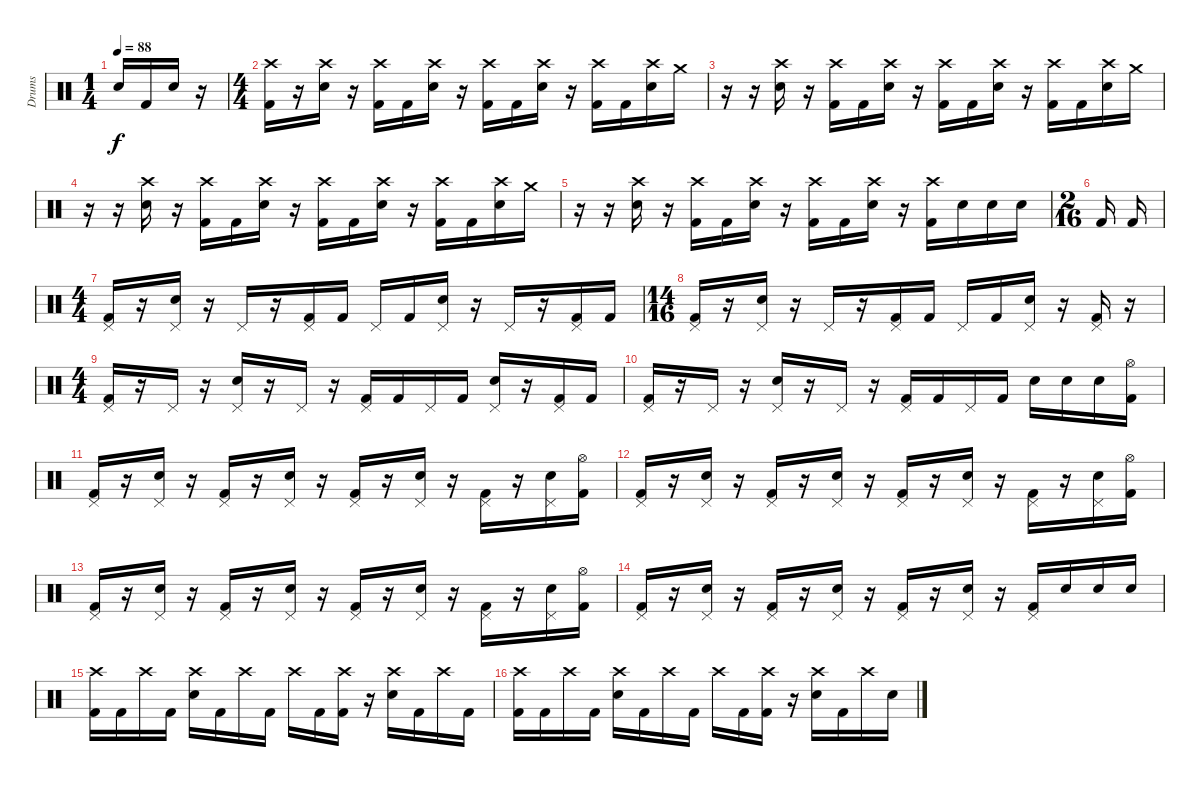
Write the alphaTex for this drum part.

\track ("Drums" "Drums") {instrument percussion}
\staff {score}
\articulation defaults
\ts (1 4)
\tempo 88
\clef neutral
\ks c "Electric Snare (hit)".16{dy f} "Kick (hit) 2".16 "Electric Snare (hit)".16
r.16 |
\ts (4 4)
("Crash high (hit)" "Kick (hit) 2").16 r.16 ("Crash high (hit)" "Electric Snare (hit)").16 r.16 ("Crash high (hit)" "Kick (hit) 2").16 "Kick (hit) 2".16 ("Crash high (hit)" "Electric Snare (hit)").16 r.16 ("Crash high (hit)" "Kick (hit) 2").16 "Kick (hit) 2".16 ("Crash high (hit)" "Electric Snare (hit)").16 r.16 ("Crash high (hit)" "Kick (hit) 2").16 "Kick (hit) 2".16 ("Crash high (hit)" "Electric Snare (hit)").16 "Crash medium (hit)".16 |
r.16 r.16 ("Crash high (hit)" "Electric Snare (hit)").16 r.16 ("Crash high (hit)" "Kick (hit) 2").16 "Kick (hit) 2".16 ("Crash high (hit)" "Electric Snare (hit)").16 r.16 ("Crash high (hit)" "Kick (hit) 2").16 "Kick (hit) 2".16 ("Crash high (hit)" "Electric Snare (hit)").16 r.16 ("Crash high (hit)" "Kick (hit) 2").16 "Kick (hit) 2".16 ("Crash high (hit)" "Electric Snare (hit)").16 "Crash medium (hit)".16 |
r.16 r.16 ("Crash high (hit)" "Electric Snare (hit)").16 r.16 ("Crash high (hit)" "Kick (hit) 2").16 "Kick (hit) 2".16 ("Crash high (hit)" "Electric Snare (hit)").16 r.16 ("Crash high (hit)" "Kick (hit) 2").16 "Kick (hit) 2".16 ("Crash high (hit)" "Electric Snare (hit)").16 r.16 ("Crash high (hit)" "Kick (hit) 2").16 "Kick (hit) 2".16 ("Crash high (hit)" "Electric Snare (hit)").16 "Crash medium (hit)".16 |
r.16 r.16 ("Crash high (hit)" "Electric Snare (hit)").16 r.16 ("Crash high (hit)" "Kick (hit) 2").16 "Kick (hit) 2".16 ("Crash high (hit)" "Electric Snare (hit)").16 r.16 ("Crash high (hit)" "Kick (hit) 2").16 "Kick (hit) 2".16 ("Crash high (hit)" "Electric Snare (hit)").16 r.16 ("Crash high (hit)" "Kick (hit) 2").16 "Electric Snare (hit)".16 "Electric Snare (hit)".16 "Electric Snare (hit)".16 |
\ts (2 16)
"Kick (hit) 2".16 "Kick (hit) 2".16 |
\ts (4 4)
("Pedal Hi-Hat (hit)" "Kick (hit) 2").16 r.16 ("Pedal Hi-Hat (hit)" "Electric Snare (hit)").16 r.16 "Pedal Hi-Hat (hit)".16 r.16 ("Pedal Hi-Hat (hit)" "Kick (hit) 2").16 "Kick (hit) 2".16 "Pedal Hi-Hat (hit)".16 "Kick (hit) 2".16 ("Pedal Hi-Hat (hit)" "Electric Snare (hit)").16 r.16 "Pedal Hi-Hat (hit)".16 r.16 ("Pedal Hi-Hat (hit)" "Kick (hit) 2").16 "Kick (hit) 2".16 |
\ts (14 16)
("Pedal Hi-Hat (hit)" "Kick (hit) 2").16 r.16 ("Pedal Hi-Hat (hit)" "Electric Snare (hit)").16 r.16 "Pedal Hi-Hat (hit)".16 r.16 ("Pedal Hi-Hat (hit)" "Kick (hit) 2").16 "Kick (hit) 2".16 "Pedal Hi-Hat (hit)".16 "Kick (hit) 2".16 ("Pedal Hi-Hat (hit)" "Electric Snare (hit)").16 r.16 ("Pedal Hi-Hat (hit)" "Kick (hit) 2").16 r.16 |
\ts (4 4)
("Pedal Hi-Hat (hit)" "Kick (hit) 2").16 r.16 "Pedal Hi-Hat (hit)".16 r.16 ("Pedal Hi-Hat (hit)" "Electric Snare (hit)").16 r.16 "Pedal Hi-Hat (hit)".16 r.16 ("Pedal Hi-Hat (hit)" "Kick (hit) 2").16 "Kick (hit) 2".16 "Pedal Hi-Hat (hit)".16 "Kick (hit) 2".16 ("Pedal Hi-Hat (hit)" "Electric Snare (hit)").16 r.16 ("Pedal Hi-Hat (hit)" "Kick (hit) 2").16 "Kick (hit) 2".16 |
("Pedal Hi-Hat (hit)" "Kick (hit) 2").16 r.16 "Pedal Hi-Hat (hit)".16 r.16 ("Pedal Hi-Hat (hit)" "Electric Snare (hit)").16 r.16 "Pedal Hi-Hat (hit)".16 r.16 ("Pedal Hi-Hat (hit)" "Kick (hit) 2").16 "Kick (hit) 2".16 "Pedal Hi-Hat (hit)".16 "Kick (hit) 2".16 "Electric Snare (hit)".16 "Electric Snare (hit)".16 "Electric Snare (hit)".16 ("Hi-Hat (open)" "Kick (hit) 2").16 |
("Pedal Hi-Hat (hit)" "Kick (hit) 2").16 r.16 ("Pedal Hi-Hat (hit)" "Electric Snare (hit)").16 r.16 ("Pedal Hi-Hat (hit)" "Kick (hit) 2").16 r.16 ("Pedal Hi-Hat (hit)" "Electric Snare (hit)").16 r.16 ("Pedal Hi-Hat (hit)" "Kick (hit) 2").16 r.16 ("Pedal Hi-Hat (hit)" "Electric Snare (hit)").16 r.16 ("Pedal Hi-Hat (hit)" "Kick (hit) 2").16 r.16 ("Pedal Hi-Hat (hit)" "Electric Snare (hit)").16 ("Hi-Hat (open)" "Kick (hit) 2").16 |
("Pedal Hi-Hat (hit)" "Kick (hit) 2").16 r.16 ("Pedal Hi-Hat (hit)" "Electric Snare (hit)").16 r.16 ("Pedal Hi-Hat (hit)" "Kick (hit) 2").16 r.16 ("Pedal Hi-Hat (hit)" "Electric Snare (hit)").16 r.16 ("Pedal Hi-Hat (hit)" "Kick (hit) 2").16 r.16 ("Pedal Hi-Hat (hit)" "Electric Snare (hit)").16 r.16 ("Pedal Hi-Hat (hit)" "Kick (hit) 2").16 r.16 ("Pedal Hi-Hat (hit)" "Electric Snare (hit)").16 ("Hi-Hat (open)" "Kick (hit) 2").16 |
("Pedal Hi-Hat (hit)" "Kick (hit) 2").16 r.16 ("Pedal Hi-Hat (hit)" "Electric Snare (hit)").16 r.16 ("Pedal Hi-Hat (hit)" "Kick (hit) 2").16 r.16 ("Pedal Hi-Hat (hit)" "Electric Snare (hit)").16 r.16 ("Pedal Hi-Hat (hit)" "Kick (hit) 2").16 r.16 ("Pedal Hi-Hat (hit)" "Electric Snare (hit)").16 r.16 ("Pedal Hi-Hat (hit)" "Kick (hit) 2").16 r.16 ("Pedal Hi-Hat (hit)" "Electric Snare (hit)").16 ("Hi-Hat (open)" "Kick (hit) 2").16 |
("Pedal Hi-Hat (hit)" "Kick (hit) 2").16 r.16 ("Pedal Hi-Hat (hit)" "Electric Snare (hit)").16 r.16 ("Pedal Hi-Hat (hit)" "Kick (hit) 2").16 r.16 ("Pedal Hi-Hat (hit)" "Electric Snare (hit)").16 r.16 ("Pedal Hi-Hat (hit)" "Kick (hit) 2").16 r.16 ("Pedal Hi-Hat (hit)" "Electric Snare (hit)").16 r.16 ("Pedal Hi-Hat (hit)" "Kick (hit) 2").16 "Electric Snare (hit)".16 "Electric Snare (hit)".16 "Electric Snare (hit)".16 |
("Crash high (hit)" "Kick (hit) 2").16 "Kick (hit) 2".16 "Crash high (hit)".16 "Kick (hit) 2".16 ("Crash high (hit)" "Electric Snare (hit)").16 "Kick (hit) 2".16 "Crash high (hit)".16 "Kick (hit) 2".16 "Crash high (hit)".16 "Kick (hit) 2".16 ("Crash high (hit)" "Kick (hit) 2").16 r.16 ("Crash high (hit)" "Electric Snare (hit)").16 "Kick (hit) 2".16 "Crash high (hit)".16 "Kick (hit) 2".16 |
("Crash high (hit)" "Kick (hit) 2").16 "Kick (hit) 2".16 "Crash high (hit)".16 "Kick (hit) 2".16 ("Crash high (hit)" "Electric Snare (hit)").16 "Kick (hit) 2".16 "Crash high (hit)".16 "Kick (hit) 2".16 "Crash high (hit)".16 "Kick (hit) 2".16 ("Crash high (hit)" "Kick (hit) 2").16 r.16 ("Crash high (hit)" "Electric Snare (hit)").16 "Kick (hit) 2".16 "Crash high (hit)".16 "Electric Snare (hit)".16
